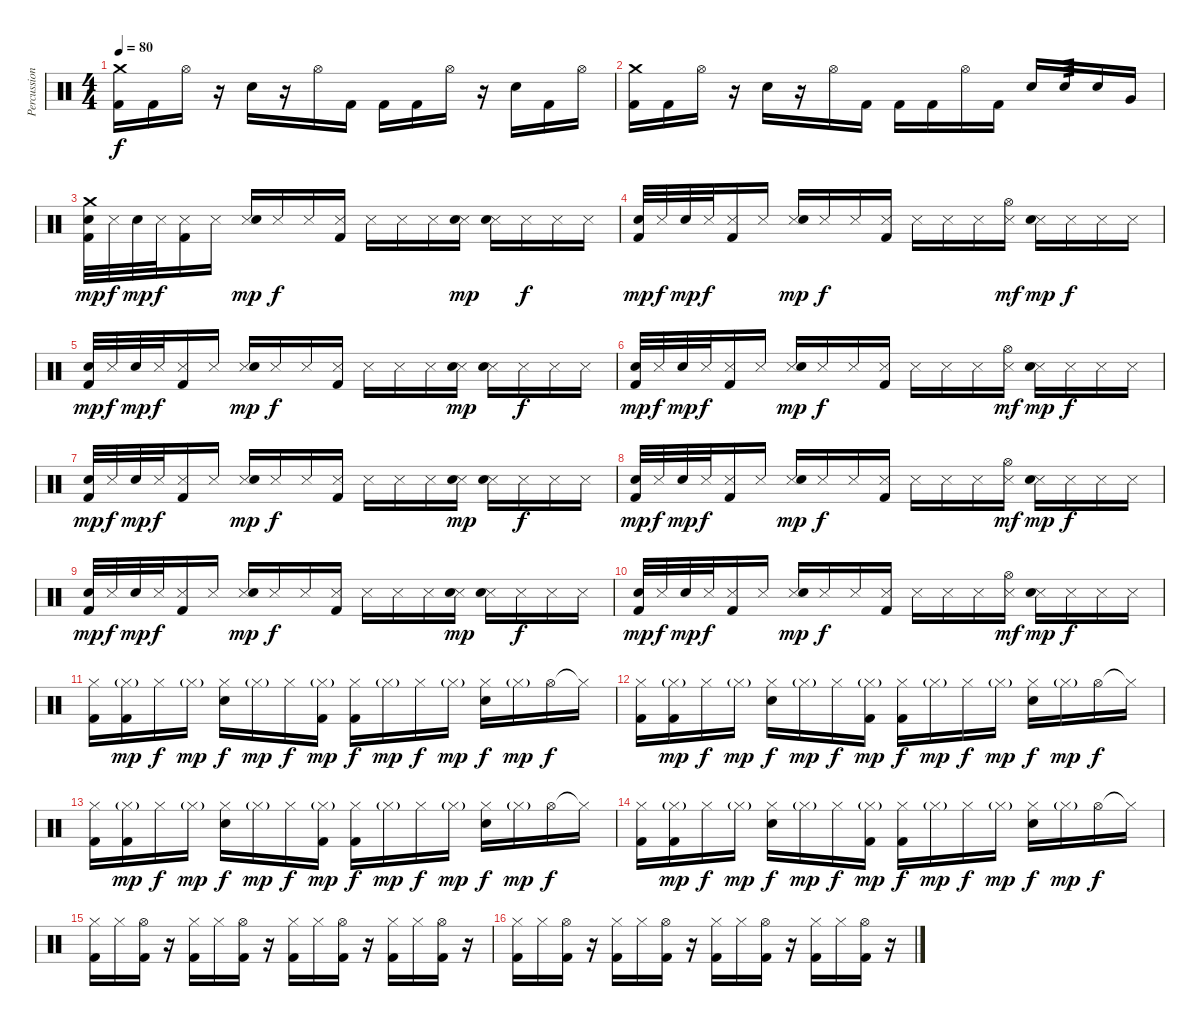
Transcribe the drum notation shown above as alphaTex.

\track ("Percussion" "Percussion") {instrument percussion}
\staff {score}
\articulation defaults
\ts (4 4)
\tempo 80
\clef neutral
\ks c
("Crash medium (hit)" "Kick (hit) 2").16{dy f} "Kick (hit) 2".16 "Hi-Hat (open)".16 r.16 "Electric Snare (hit)".16 r.16 "Hi-Hat (open)".16 "Kick (hit) 2".16 "Kick (hit) 2".16 "Kick (hit) 2".16 "Hi-Hat (open)".16 r.16 "Electric Snare (hit)".16 "Kick (hit) 2".16 "Hi-Hat (open)".16 |
("Crash medium (hit)" "Kick (hit) 2").16 "Kick (hit) 2".16 "Hi-Hat (open)".16 r.16 "Electric Snare (hit)".16 r.16 "Hi-Hat (open)".16 "Kick (hit) 2".16 "Kick (hit) 2".16 "Kick (hit) 2".16 "Hi-Hat (open)".16 "Kick (hit) 2".16 "Electric Snare (hit)".16 "Electric Snare (hit)".16{tp 3} "Electric Snare (hit)".16 "Very Low Tom (hit)".16 |
("Electric Snare (hit)" "Kick (hit) 2" "Crash medium (hit)").32{dy mp} "Snare (side stick) 3".32{dy f} "Electric Snare (hit)".32{dy mp} "Snare (side stick) 3".32{dy f} ("Snare (side stick) 3" "Kick (hit) 2").16 "Snare (side stick) 3".16 ("Snare (side stick) 3" "Electric Snare (hit)").16{dy mp} "Snare (side stick) 3".16{dy f} "Snare (side stick) 3".16 ("Snare (side stick) 3" "Kick (hit) 2").16 "Snare (side stick) 3".16 "Snare (side stick) 3".16 "Snare (side stick) 3".16 ("Snare (side stick) 3" "Electric Snare (hit)").16{dy mp} ("Snare (side stick) 3" "Electric Snare (hit)").16 "Snare (side stick) 3".16{dy f} "Snare (side stick) 3".16 "Snare (side stick) 3".16 |
("Electric Snare (hit)" "Kick (hit) 2").32{dy mp} "Snare (side stick) 3".32{dy f} "Electric Snare (hit)".32{dy mp} "Snare (side stick) 3".32{dy f} ("Snare (side stick) 3" "Kick (hit) 2").16 "Snare (side stick) 3".16 ("Snare (side stick) 3" "Electric Snare (hit)").16{dy mp} "Snare (side stick) 3".16{dy f} "Snare (side stick) 3".16 ("Snare (side stick) 3" "Kick (hit) 2").16 "Snare (side stick) 3".16 "Snare (side stick) 3".16 "Snare (side stick) 3".16 ("Snare (side stick) 3" "Hi-Hat (open)").16{dy mf} ("Snare (side stick) 3" "Electric Snare (hit)").16{dy mp} "Snare (side stick) 3".16{dy f} "Snare (side stick) 3".16 "Snare (side stick) 3".16 |
("Electric Snare (hit)" "Kick (hit) 2").32{dy mp} "Snare (side stick) 3".32{dy f} "Electric Snare (hit)".32{dy mp} "Snare (side stick) 3".32{dy f} ("Snare (side stick) 3" "Kick (hit) 2").16 "Snare (side stick) 3".16 ("Snare (side stick) 3" "Electric Snare (hit)").16{dy mp} "Snare (side stick) 3".16{dy f} "Snare (side stick) 3".16 ("Snare (side stick) 3" "Kick (hit) 2").16 "Snare (side stick) 3".16 "Snare (side stick) 3".16 "Snare (side stick) 3".16 ("Snare (side stick) 3" "Electric Snare (hit)").16{dy mp} ("Snare (side stick) 3" "Electric Snare (hit)").16 "Snare (side stick) 3".16{dy f} "Snare (side stick) 3".16 "Snare (side stick) 3".16 |
("Electric Snare (hit)" "Kick (hit) 2").32{dy mp} "Snare (side stick) 3".32{dy f} "Electric Snare (hit)".32{dy mp} "Snare (side stick) 3".32{dy f} ("Snare (side stick) 3" "Kick (hit) 2").16 "Snare (side stick) 3".16 ("Snare (side stick) 3" "Electric Snare (hit)").16{dy mp} "Snare (side stick) 3".16{dy f} "Snare (side stick) 3".16 ("Snare (side stick) 3" "Kick (hit) 2").16 "Snare (side stick) 3".16 "Snare (side stick) 3".16 "Snare (side stick) 3".16 ("Snare (side stick) 3" "Hi-Hat (open)").16{dy mf} ("Snare (side stick) 3" "Electric Snare (hit)").16{dy mp} "Snare (side stick) 3".16{dy f} "Snare (side stick) 3".16 "Snare (side stick) 3".16 |
("Electric Snare (hit)" "Kick (hit) 2").32{dy mp} "Snare (side stick) 3".32{dy f} "Electric Snare (hit)".32{dy mp} "Snare (side stick) 3".32{dy f} ("Snare (side stick) 3" "Kick (hit) 2").16 "Snare (side stick) 3".16 ("Snare (side stick) 3" "Electric Snare (hit)").16{dy mp} "Snare (side stick) 3".16{dy f} "Snare (side stick) 3".16 ("Snare (side stick) 3" "Kick (hit) 2").16 "Snare (side stick) 3".16 "Snare (side stick) 3".16 "Snare (side stick) 3".16 ("Snare (side stick) 3" "Electric Snare (hit)").16{dy mp} ("Snare (side stick) 3" "Electric Snare (hit)").16 "Snare (side stick) 3".16{dy f} "Snare (side stick) 3".16 "Snare (side stick) 3".16 |
("Electric Snare (hit)" "Kick (hit) 2").32{dy mp} "Snare (side stick) 3".32{dy f} "Electric Snare (hit)".32{dy mp} "Snare (side stick) 3".32{dy f} ("Snare (side stick) 3" "Kick (hit) 2").16 "Snare (side stick) 3".16 ("Snare (side stick) 3" "Electric Snare (hit)").16{dy mp} "Snare (side stick) 3".16{dy f} "Snare (side stick) 3".16 ("Snare (side stick) 3" "Kick (hit) 2").16 "Snare (side stick) 3".16 "Snare (side stick) 3".16 "Snare (side stick) 3".16 ("Snare (side stick) 3" "Hi-Hat (open)").16{dy mf} ("Snare (side stick) 3" "Electric Snare (hit)").16{dy mp} "Snare (side stick) 3".16{dy f} "Snare (side stick) 3".16 "Snare (side stick) 3".16 |
("Electric Snare (hit)" "Kick (hit) 2").32{dy mp} "Snare (side stick) 3".32{dy f} "Electric Snare (hit)".32{dy mp} "Snare (side stick) 3".32{dy f} ("Snare (side stick) 3" "Kick (hit) 2").16 "Snare (side stick) 3".16 ("Snare (side stick) 3" "Electric Snare (hit)").16{dy mp} "Snare (side stick) 3".16{dy f} "Snare (side stick) 3".16 ("Snare (side stick) 3" "Kick (hit) 2").16 "Snare (side stick) 3".16 "Snare (side stick) 3".16 "Snare (side stick) 3".16 ("Snare (side stick) 3" "Electric Snare (hit)").16{dy mp} ("Snare (side stick) 3" "Electric Snare (hit)").16 "Snare (side stick) 3".16{dy f} "Snare (side stick) 3".16 "Snare (side stick) 3".16 |
("Electric Snare (hit)" "Kick (hit) 2").32{dy mp} "Snare (side stick) 3".32{dy f} "Electric Snare (hit)".32{dy mp} "Snare (side stick) 3".32{dy f} ("Snare (side stick) 3" "Kick (hit) 2").16 "Snare (side stick) 3".16 ("Snare (side stick) 3" "Electric Snare (hit)").16{dy mp} "Snare (side stick) 3".16{dy f} "Snare (side stick) 3".16 ("Snare (side stick) 3" "Kick (hit) 2").16 "Snare (side stick) 3".16 "Snare (side stick) 3".16 "Snare (side stick) 3".16 ("Snare (side stick) 3" "Hi-Hat (open)").16{dy mf} ("Snare (side stick) 3" "Electric Snare (hit)").16{dy mp} "Snare (side stick) 3".16{dy f} "Snare (side stick) 3".16 "Snare (side stick) 3".16 |
("Hi-Hat (closed)" "Kick (hit) 2").16 ("Hi-Hat (closed)"{g} "Kick (hit) 2").16{dy mp} "Hi-Hat (closed)".16{dy f} "Hi-Hat (closed)"{g}.16{dy mp} ("Hi-Hat (closed)" "Electric Snare (hit)").16{dy f} "Hi-Hat (closed)"{g}.16{dy mp} "Hi-Hat (closed)".16{dy f} ("Hi-Hat (closed)"{g} "Kick (hit) 2").16{dy mp} ("Hi-Hat (closed)" "Kick (hit) 2").16{dy f} "Hi-Hat (closed)"{g}.16{dy mp} "Hi-Hat (closed)".16{dy f} "Hi-Hat (closed)"{g}.16{dy mp} ("Hi-Hat (closed)" "Electric Snare (hit)").16{dy f} "Hi-Hat (closed)"{g}.16{dy mp} "Hi-Hat (open)".16{dy f} "Hi-Hat (closed)"{t}.16 |
("Hi-Hat (closed)" "Kick (hit) 2").16 ("Hi-Hat (closed)"{g} "Kick (hit) 2").16{dy mp} "Hi-Hat (closed)".16{dy f} "Hi-Hat (closed)"{g}.16{dy mp} ("Hi-Hat (closed)" "Electric Snare (hit)").16{dy f} "Hi-Hat (closed)"{g}.16{dy mp} "Hi-Hat (closed)".16{dy f} ("Hi-Hat (closed)"{g} "Kick (hit) 2").16{dy mp} ("Hi-Hat (closed)" "Kick (hit) 2").16{dy f} "Hi-Hat (closed)"{g}.16{dy mp} "Hi-Hat (closed)".16{dy f} "Hi-Hat (closed)"{g}.16{dy mp} ("Hi-Hat (closed)" "Electric Snare (hit)").16{dy f} "Hi-Hat (closed)"{g}.16{dy mp} "Hi-Hat (open)".16{dy f} "Hi-Hat (closed)"{t}.16 |
("Hi-Hat (closed)" "Kick (hit) 2").16 ("Hi-Hat (closed)"{g} "Kick (hit) 2").16{dy mp} "Hi-Hat (closed)".16{dy f} "Hi-Hat (closed)"{g}.16{dy mp} ("Hi-Hat (closed)" "Electric Snare (hit)").16{dy f} "Hi-Hat (closed)"{g}.16{dy mp} "Hi-Hat (closed)".16{dy f} ("Hi-Hat (closed)"{g} "Kick (hit) 2").16{dy mp} ("Hi-Hat (closed)" "Kick (hit) 2").16{dy f} "Hi-Hat (closed)"{g}.16{dy mp} "Hi-Hat (closed)".16{dy f} "Hi-Hat (closed)"{g}.16{dy mp} ("Hi-Hat (closed)" "Electric Snare (hit)").16{dy f} "Hi-Hat (closed)"{g}.16{dy mp} "Hi-Hat (open)".16{dy f} "Hi-Hat (closed)"{t}.16 |
("Hi-Hat (closed)" "Kick (hit) 2").16 ("Hi-Hat (closed)"{g} "Kick (hit) 2").16{dy mp} "Hi-Hat (closed)".16{dy f} "Hi-Hat (closed)"{g}.16{dy mp} ("Hi-Hat (closed)" "Electric Snare (hit)").16{dy f} "Hi-Hat (closed)"{g}.16{dy mp} "Hi-Hat (closed)".16{dy f} ("Hi-Hat (closed)"{g} "Kick (hit) 2").16{dy mp} ("Hi-Hat (closed)" "Kick (hit) 2").16{dy f} "Hi-Hat (closed)"{g}.16{dy mp} "Hi-Hat (closed)".16{dy f} "Hi-Hat (closed)"{g}.16{dy mp} ("Hi-Hat (closed)" "Electric Snare (hit)").16{dy f} "Hi-Hat (closed)"{g}.16{dy mp} "Hi-Hat (open)".16{dy f} "Hi-Hat (closed)"{t}.16 |
("Hi-Hat (closed)" "Kick (hit) 2").16 "Hi-Hat (closed)".16 ("Hi-Hat (open)" "Kick (hit) 2").16 r.16 ("Hi-Hat (closed)" "Kick (hit) 2").16 "Hi-Hat (closed)".16 ("Hi-Hat (open)" "Kick (hit) 2").16 r.16 ("Hi-Hat (closed)" "Kick (hit) 2").16 "Hi-Hat (closed)".16 ("Hi-Hat (open)" "Kick (hit) 2").16 r.16 ("Hi-Hat (closed)" "Kick (hit) 2").16 "Hi-Hat (closed)".16 ("Hi-Hat (open)" "Kick (hit) 2").16 r.16 |
("Hi-Hat (closed)" "Kick (hit) 2").16 "Hi-Hat (closed)".16 ("Hi-Hat (open)" "Kick (hit) 2").16 r.16 ("Hi-Hat (closed)" "Kick (hit) 2").16 "Hi-Hat (closed)".16 ("Hi-Hat (open)" "Kick (hit) 2").16 r.16 ("Hi-Hat (closed)" "Kick (hit) 2").16 "Hi-Hat (closed)".16 ("Hi-Hat (open)" "Kick (hit) 2").16 r.16 ("Hi-Hat (closed)" "Kick (hit) 2").16 "Hi-Hat (closed)".16 ("Hi-Hat (open)" "Kick (hit) 2").16 r.16
